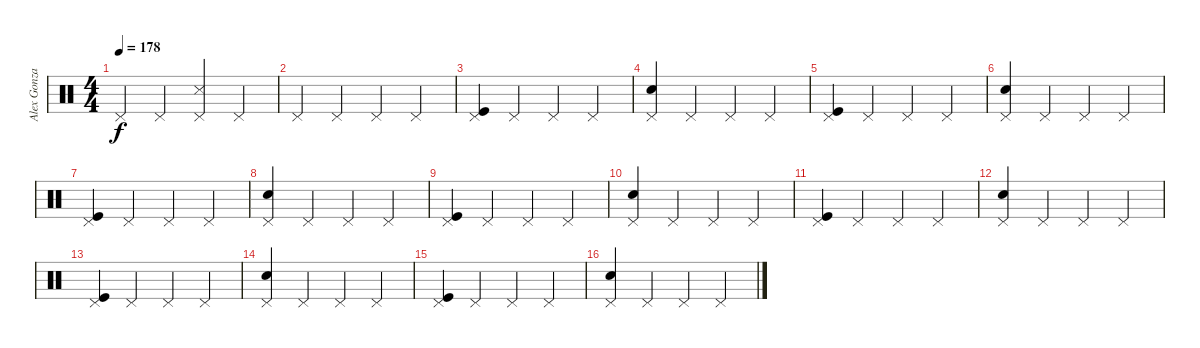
\track ("Alex Gonzales" "Alex Gonza") {instrument percussion}
\staff {score}
\articulation defaults
\ts (4 4)
\tempo 178
\clef neutral
\ks c "Pedal Hi-Hat (hit)".4{dy f} "Pedal Hi-Hat (hit)".4
("Pedal Hi-Hat (hit)" "Snare (side stick) 3").4 "Pedal Hi-Hat (hit)".4 |
"Pedal Hi-Hat (hit)".4 "Pedal Hi-Hat (hit)".4 "Pedal Hi-Hat (hit)".4 "Pedal Hi-Hat (hit)".4 |
("Pedal Hi-Hat (hit)" "Kick (hit)").4 "Pedal Hi-Hat (hit)".4 "Pedal Hi-Hat (hit)".4 "Pedal Hi-Hat (hit)".4 |
("Pedal Hi-Hat (hit)" "Snare (hit) 2").4 "Pedal Hi-Hat (hit)".4 "Pedal Hi-Hat (hit)".4 "Pedal Hi-Hat (hit)".4 |
("Pedal Hi-Hat (hit)" "Kick (hit)").4 "Pedal Hi-Hat (hit)".4 "Pedal Hi-Hat (hit)".4 "Pedal Hi-Hat (hit)".4 |
("Pedal Hi-Hat (hit)" "Snare (hit) 2").4 "Pedal Hi-Hat (hit)".4 "Pedal Hi-Hat (hit)".4 "Pedal Hi-Hat (hit)".4 |
("Pedal Hi-Hat (hit)" "Kick (hit)").4 "Pedal Hi-Hat (hit)".4 "Pedal Hi-Hat (hit)".4 "Pedal Hi-Hat (hit)".4 |
("Pedal Hi-Hat (hit)" "Snare (hit) 2").4 "Pedal Hi-Hat (hit)".4 "Pedal Hi-Hat (hit)".4 "Pedal Hi-Hat (hit)".4 |
("Pedal Hi-Hat (hit)" "Kick (hit)").4 "Pedal Hi-Hat (hit)".4 "Pedal Hi-Hat (hit)".4 "Pedal Hi-Hat (hit)".4 |
("Pedal Hi-Hat (hit)" "Snare (hit) 2").4 "Pedal Hi-Hat (hit)".4 "Pedal Hi-Hat (hit)".4 "Pedal Hi-Hat (hit)".4 |
("Pedal Hi-Hat (hit)" "Kick (hit)").4 "Pedal Hi-Hat (hit)".4 "Pedal Hi-Hat (hit)".4 "Pedal Hi-Hat (hit)".4 |
("Pedal Hi-Hat (hit)" "Snare (hit) 2").4 "Pedal Hi-Hat (hit)".4 "Pedal Hi-Hat (hit)".4 "Pedal Hi-Hat (hit)".4 |
("Pedal Hi-Hat (hit)" "Kick (hit)").4 "Pedal Hi-Hat (hit)".4 "Pedal Hi-Hat (hit)".4 "Pedal Hi-Hat (hit)".4 |
("Pedal Hi-Hat (hit)" "Snare (hit) 2").4 "Pedal Hi-Hat (hit)".4 "Pedal Hi-Hat (hit)".4 "Pedal Hi-Hat (hit)".4 |
("Pedal Hi-Hat (hit)" "Kick (hit)").4 "Pedal Hi-Hat (hit)".4 "Pedal Hi-Hat (hit)".4 "Pedal Hi-Hat (hit)".4 |
("Pedal Hi-Hat (hit)" "Snare (hit) 2").4 "Pedal Hi-Hat (hit)".4 "Pedal Hi-Hat (hit)".4 "Pedal Hi-Hat (hit)".4
